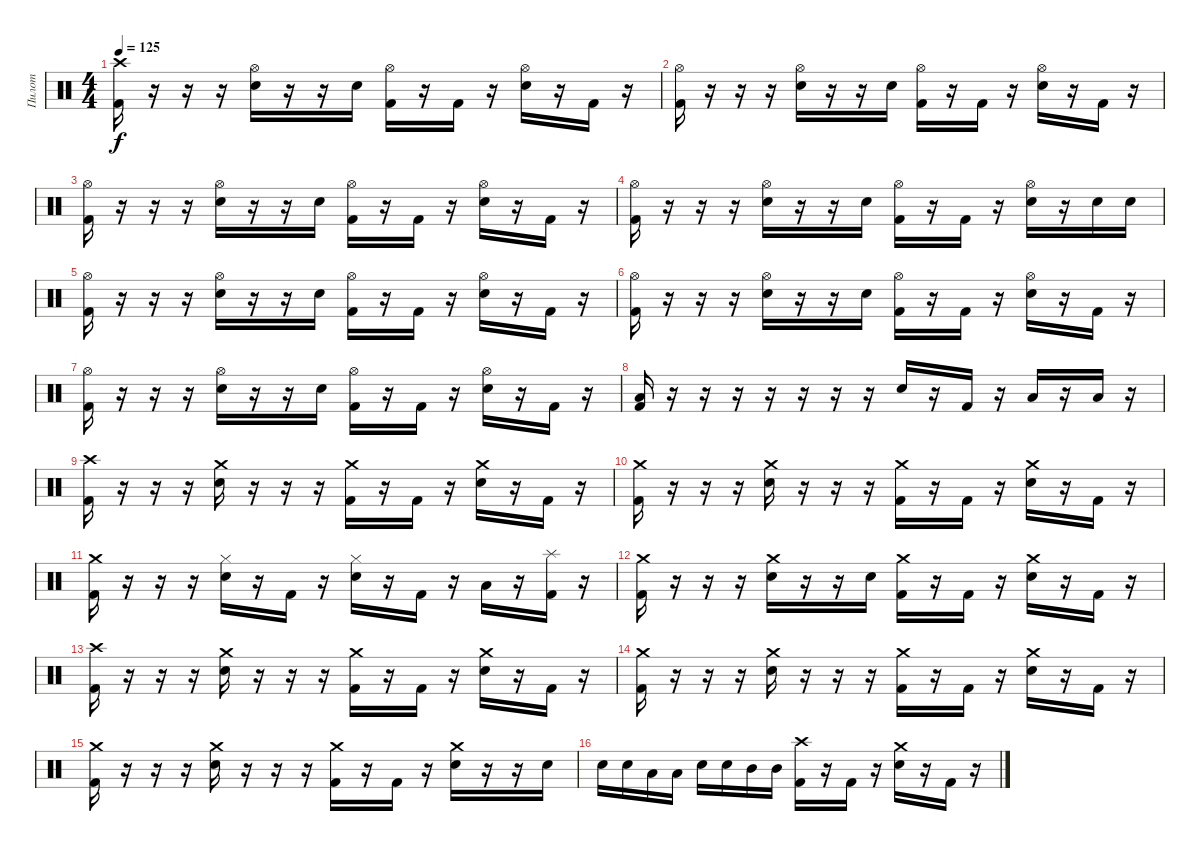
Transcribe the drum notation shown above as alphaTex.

\track ("Пилот" "Пилот") {instrument percussion}
\staff {score}
\articulation defaults
\ts (4 4)
\tempo 125
\clef neutral
\ks c
("Crash high (hit)" "Kick (hit) 2").16{dy f} r.16 r.16 r.16 ("Hi-Hat (open)" "Electric Snare (hit)").16 r.16 r.16 "Electric Snare (hit)".16 ("Hi-Hat (open)" "Kick (hit) 2").16 r.16 "Kick (hit) 2".16 r.16 ("Hi-Hat (open)" "Electric Snare (hit)").16 r.16 "Kick (hit) 2".16 r.16 |
("Hi-Hat (open)" "Kick (hit) 2").16 r.16 r.16 r.16 ("Hi-Hat (open)" "Electric Snare (hit)").16 r.16 r.16 "Electric Snare (hit)".16 ("Hi-Hat (open)" "Kick (hit) 2").16 r.16 "Kick (hit) 2".16 r.16 ("Hi-Hat (open)" "Electric Snare (hit)").16 r.16 "Kick (hit) 2".16 r.16 |
("Hi-Hat (open)" "Kick (hit) 2").16 r.16 r.16 r.16 ("Hi-Hat (open)" "Electric Snare (hit)").16 r.16 r.16 "Electric Snare (hit)".16 ("Hi-Hat (open)" "Kick (hit) 2").16 r.16 "Kick (hit) 2".16 r.16 ("Hi-Hat (open)" "Electric Snare (hit)").16 r.16 "Kick (hit) 2".16 r.16 |
("Hi-Hat (open)" "Kick (hit) 2").16 r.16 r.16 r.16 ("Hi-Hat (open)" "Electric Snare (hit)").16 r.16 r.16 "Electric Snare (hit)".16 ("Hi-Hat (open)" "Kick (hit) 2").16 r.16 "Kick (hit) 2".16 r.16 ("Hi-Hat (open)" "Electric Snare (hit)").16 r.16 "Electric Snare (hit)".16 "Electric Snare (hit)".16 |
("Hi-Hat (open)" "Kick (hit) 2").16 r.16 r.16 r.16 ("Hi-Hat (open)" "Electric Snare (hit)").16 r.16 r.16 "Electric Snare (hit)".16 ("Hi-Hat (open)" "Kick (hit) 2").16 r.16 "Kick (hit) 2".16 r.16 ("Hi-Hat (open)" "Electric Snare (hit)").16 r.16 "Kick (hit) 2".16 r.16 |
("Hi-Hat (open)" "Kick (hit) 2").16 r.16 r.16 r.16 ("Hi-Hat (open)" "Electric Snare (hit)").16 r.16 r.16 "Electric Snare (hit)".16 ("Hi-Hat (open)" "Kick (hit) 2").16 r.16 "Kick (hit) 2".16 r.16 ("Hi-Hat (open)" "Electric Snare (hit)").16 r.16 "Kick (hit) 2".16 r.16 |
("Hi-Hat (open)" "Kick (hit) 2").16 r.16 r.16 r.16 ("Hi-Hat (open)" "Electric Snare (hit)").16 r.16 r.16 "Electric Snare (hit)".16 ("Hi-Hat (open)" "Kick (hit) 2").16 r.16 "Kick (hit) 2".16 r.16 ("Hi-Hat (open)" "Electric Snare (hit)").16 r.16 "Kick (hit) 2".16 r.16 |
("Low Floor Tom (hit)" "Kick (hit) 2").16 r.16 r.16 r.16 r.16 r.16 r.16 r.16 "Electric Snare (hit)".16 r.16 "Kick (hit) 2".16 r.16 "Low Tom (hit)".16 r.16 "Low Floor Tom (hit)".16 r.16 |
("Crash high (hit)" "Kick (hit) 2").16 r.16 r.16 r.16 ("Crash medium (hit)" "Electric Snare (hit)").16 r.16 r.16 r.16 ("Crash medium (hit)" "Kick (hit) 2").16 r.16 "Kick (hit) 2".16 r.16 ("Crash medium (hit)" "Electric Snare (hit)").16 r.16 "Kick (hit) 2".16 r.16 |
("Crash medium (hit)" "Kick (hit) 2").16 r.16 r.16 r.16 ("Crash medium (hit)" "Electric Snare (hit)").16 r.16 r.16 r.16 ("Crash medium (hit)" "Kick (hit) 2").16 r.16 "Kick (hit) 2".16 r.16 ("Crash medium (hit)" "Electric Snare (hit)").16 r.16 "Kick (hit) 2".16 r.16 |
("Crash medium (hit)" "Kick (hit) 2").16 r.16 r.16 r.16 ("Hi-Hat (closed)" "Electric Snare (hit)").16 r.16 "Kick (hit) 2".16 r.16 ("Hi-Hat (closed)" "Electric Snare (hit)").16 r.16 "Kick (hit) 2".16 r.16 "Low Floor Tom (hit)".16 r.16 ("Splash (hit)" "Kick (hit) 2").16 r.16 |
("Crash medium (hit)" "Kick (hit) 2").16 r.16 r.16 r.16 ("Crash medium (hit)" "Electric Snare (hit)").16 r.16 r.16 "Electric Snare (hit)".16 ("Crash medium (hit)" "Kick (hit) 2").16 r.16 "Kick (hit) 2".16 r.16 ("Crash medium (hit)" "Electric Snare (hit)").16 r.16 "Kick (hit) 2".16 r.16 |
("Crash high (hit)" "Kick (hit) 2").16 r.16 r.16 r.16 ("Crash medium (hit)" "Electric Snare (hit)").16 r.16 r.16 r.16 ("Crash medium (hit)" "Kick (hit) 2").16 r.16 "Kick (hit) 2".16 r.16 ("Crash medium (hit)" "Electric Snare (hit)").16 r.16 "Kick (hit) 2".16 r.16 |
("Crash medium (hit)" "Kick (hit) 2").16 r.16 r.16 r.16 ("Crash medium (hit)" "Electric Snare (hit)").16 r.16 r.16 r.16 ("Crash medium (hit)" "Kick (hit) 2").16 r.16 "Kick (hit) 2".16 r.16 ("Crash medium (hit)" "Electric Snare (hit)").16 r.16 "Kick (hit) 2".16 r.16 |
("Crash medium (hit)" "Kick (hit) 2").16 r.16 r.16 r.16 ("Crash medium (hit)" "Electric Snare (hit)").16 r.16 r.16 r.16 ("Crash medium (hit)" "Kick (hit) 2").16 r.16 "Kick (hit) 2".16 r.16 ("Crash medium (hit)" "Electric Snare (hit)").16 r.16 r.16 "Electric Snare (hit)".16 |
"Electric Snare (hit)".16 "Electric Snare (hit)".16 "Low Tom (hit)".16 "Low Tom (hit)".16 "Electric Snare (hit)".16 "Electric Snare (hit)".16 "Mid Tom (hit)".16 "Mid Tom (hit)".16 ("Crash high (hit)" "Kick (hit) 2").16 r.16 "Kick (hit) 2".16 r.16 ("Crash medium (hit)" "Electric Snare (hit)").16 r.16 "Kick (hit) 2".16 r.16
